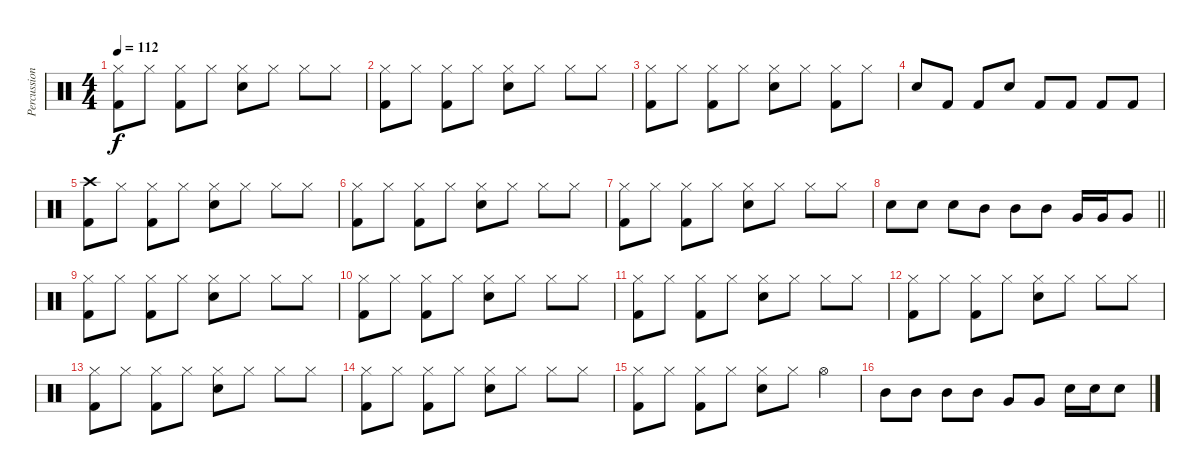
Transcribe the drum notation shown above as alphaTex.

\track ("Percussion" "Percussion") {instrument percussion}
\staff {score}
\articulation defaults
\ts (4 4)
\tempo 112
\clef neutral
\ks c
("Hi-Hat (closed)" "Kick (hit) 2").8{dy f} "Hi-Hat (closed)".8 ("Hi-Hat (closed)" "Kick (hit) 2").8 "Hi-Hat (closed)".8 ("Hi-Hat (closed)" "Snare (hit) 2").8 "Hi-Hat (closed)".8 "Hi-Hat (closed)".8 "Hi-Hat (closed)".8 |
("Hi-Hat (closed)" "Kick (hit) 2").8 "Hi-Hat (closed)".8 ("Hi-Hat (closed)" "Kick (hit) 2").8 "Hi-Hat (closed)".8 ("Hi-Hat (closed)" "Snare (hit) 2").8 "Hi-Hat (closed)".8 "Hi-Hat (closed)".8 "Hi-Hat (closed)".8 |
("Hi-Hat (closed)" "Kick (hit) 2").8 "Hi-Hat (closed)".8 ("Hi-Hat (closed)" "Kick (hit) 2").8 "Hi-Hat (closed)".8 ("Hi-Hat (closed)" "Snare (hit) 2").8 "Hi-Hat (closed)".8 ("Hi-Hat (closed)" "Kick (hit) 2").8 "Hi-Hat (closed)".8 |
"Snare (hit) 2".8 "Kick (hit) 2".8 "Kick (hit) 2".8 "Snare (hit) 2".8 "Kick (hit) 2".8 "Kick (hit) 2".8 "Kick (hit) 2".8 "Kick (hit) 2".8 |
("Crash high (hit)" "Kick (hit) 2").8 "Hi-Hat (closed)".8 ("Hi-Hat (closed)" "Kick (hit) 2").8 "Hi-Hat (closed)".8 ("Hi-Hat (closed)" "Snare (hit) 2").8 "Hi-Hat (closed)".8 "Hi-Hat (closed)".8 "Hi-Hat (closed)".8 |
("Hi-Hat (closed)" "Kick (hit) 2").8 "Hi-Hat (closed)".8 ("Hi-Hat (closed)" "Kick (hit) 2").8 "Hi-Hat (closed)".8 ("Hi-Hat (closed)" "Snare (hit) 2").8 "Hi-Hat (closed)".8 "Hi-Hat (closed)".8 "Hi-Hat (closed)".8 |
("Hi-Hat (closed)" "Kick (hit) 2").8 "Hi-Hat (closed)".8 ("Hi-Hat (closed)" "Kick (hit) 2").8 "Hi-Hat (closed)".8 ("Hi-Hat (closed)" "Snare (hit) 2").8 "Hi-Hat (closed)".8 "Hi-Hat (closed)".8 "Hi-Hat (closed)".8 |
\barLineRight lightlight "Snare (hit) 2".8 "Snare (hit) 2".8 "Snare (hit) 2".8 "Mid Tom (hit)".8 "Mid Tom (hit)".8 "Mid Tom (hit)".8 "Very Low Tom (hit)".16 "Very Low Tom (hit)".16 "Very Low Tom (hit)".8
|
("Hi-Hat (closed)" "Kick (hit) 2").8 "Hi-Hat (closed)".8 ("Hi-Hat (closed)" "Kick (hit) 2").8 "Hi-Hat (closed)".8 ("Hi-Hat (closed)" "Snare (hit) 2").8 "Hi-Hat (closed)".8 "Hi-Hat (closed)".8 "Hi-Hat (closed)".8 |
("Hi-Hat (closed)" "Kick (hit) 2").8 "Hi-Hat (closed)".8 ("Hi-Hat (closed)" "Kick (hit) 2").8 "Hi-Hat (closed)".8 ("Hi-Hat (closed)" "Snare (hit) 2").8 "Hi-Hat (closed)".8 "Hi-Hat (closed)".8 "Hi-Hat (closed)".8 |
("Hi-Hat (closed)" "Kick (hit) 2").8 "Hi-Hat (closed)".8 ("Hi-Hat (closed)" "Kick (hit) 2").8 "Hi-Hat (closed)".8 ("Hi-Hat (closed)" "Snare (hit) 2").8 "Hi-Hat (closed)".8 "Hi-Hat (closed)".8 "Hi-Hat (closed)".8 |
("Hi-Hat (closed)" "Kick (hit) 2").8 "Hi-Hat (closed)".8 ("Hi-Hat (closed)" "Kick (hit) 2").8 "Hi-Hat (closed)".8 ("Hi-Hat (closed)" "Snare (hit) 2").8 "Hi-Hat (closed)".8 "Hi-Hat (closed)".8 "Hi-Hat (closed)".8 |
("Hi-Hat (closed)" "Kick (hit) 2").8 "Hi-Hat (closed)".8 ("Hi-Hat (closed)" "Kick (hit) 2").8 "Hi-Hat (closed)".8 ("Hi-Hat (closed)" "Snare (hit) 2").8 "Hi-Hat (closed)".8 "Hi-Hat (closed)".8 "Hi-Hat (closed)".8 |
("Hi-Hat (closed)" "Kick (hit) 2").8 "Hi-Hat (closed)".8 ("Hi-Hat (closed)" "Kick (hit) 2").8 "Hi-Hat (closed)".8 ("Hi-Hat (closed)" "Snare (hit) 2").8 "Hi-Hat (closed)".8 "Hi-Hat (closed)".8 "Hi-Hat (closed)".8 |
("Hi-Hat (closed)" "Kick (hit) 2").8 "Hi-Hat (closed)".8 ("Hi-Hat (closed)" "Kick (hit) 2").8 "Hi-Hat (closed)".8 ("Hi-Hat (closed)" "Snare (hit) 2").8 "Hi-Hat (closed)".8 "Hi-Hat (open)".4 |
"Mid Tom (hit)".8 "Mid Tom (hit)".8 "Mid Tom (hit)".8 "Mid Tom (hit)".8 "Very Low Tom (hit)".8 "Very Low Tom (hit)".8 "Snare (hit) 2".16 "Snare (hit) 2".16 "Snare (hit) 2".8
